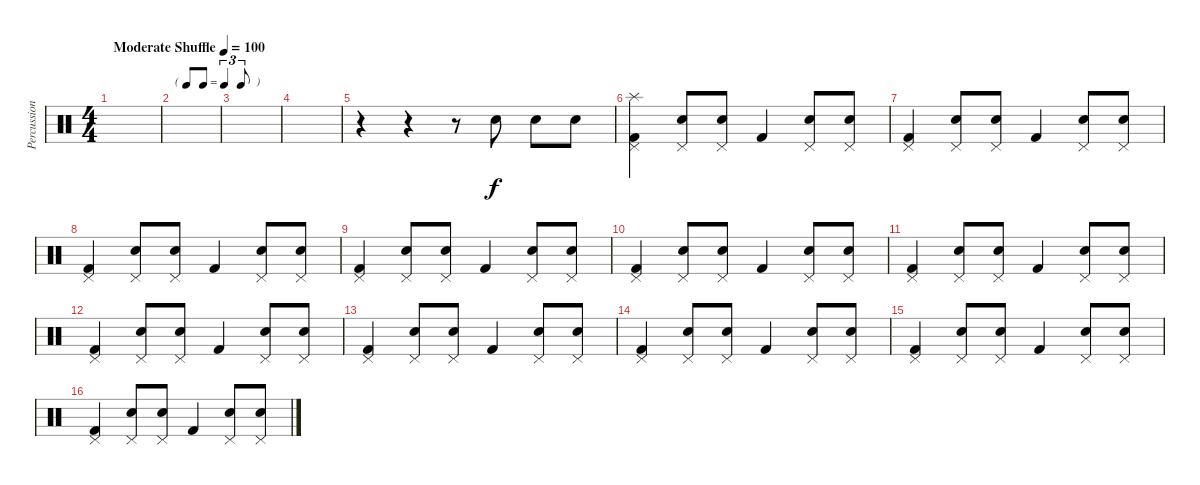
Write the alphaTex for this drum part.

\track ("Percussion" "Percussion") {instrument percussion}
\staff {score}
\articulation defaults
\ts (4 4)
\tempo (100 "Moderate Shuffle")
\clef neutral
\ks c
|
\tf triplet8th
|
|
|
r.4 r.4 r.8 "Snare (hit) 2".8 "Snare (hit) 2".8 "Snare (hit) 2".8 |
("Kick (hit) 2" "Pedal Hi-Hat (hit)" "Splash (hit)").4 ("Snare (hit) 2" "Pedal Hi-Hat (hit)").8 ("Snare (hit) 2" "Pedal Hi-Hat (hit)").8 "Kick (hit) 2".4 ("Snare (hit) 2" "Pedal Hi-Hat (hit)").8 ("Snare (hit) 2" "Pedal Hi-Hat (hit)").8 |
("Kick (hit) 2" "Pedal Hi-Hat (hit)").4 ("Snare (hit) 2" "Pedal Hi-Hat (hit)").8 ("Snare (hit) 2" "Pedal Hi-Hat (hit)").8 "Kick (hit) 2".4 ("Snare (hit) 2" "Pedal Hi-Hat (hit)").8 ("Snare (hit) 2" "Pedal Hi-Hat (hit)").8 |
("Kick (hit) 2" "Pedal Hi-Hat (hit)").4 ("Snare (hit) 2" "Pedal Hi-Hat (hit)").8 ("Snare (hit) 2" "Pedal Hi-Hat (hit)").8 "Kick (hit) 2".4 ("Snare (hit) 2" "Pedal Hi-Hat (hit)").8 ("Snare (hit) 2" "Pedal Hi-Hat (hit)").8 |
("Kick (hit) 2" "Pedal Hi-Hat (hit)").4 ("Snare (hit) 2" "Pedal Hi-Hat (hit)").8 ("Snare (hit) 2" "Pedal Hi-Hat (hit)").8 "Kick (hit) 2".4 ("Snare (hit) 2" "Pedal Hi-Hat (hit)").8 ("Snare (hit) 2" "Pedal Hi-Hat (hit)").8 |
("Kick (hit) 2" "Pedal Hi-Hat (hit)").4 ("Snare (hit) 2" "Pedal Hi-Hat (hit)").8 ("Snare (hit) 2" "Pedal Hi-Hat (hit)").8 "Kick (hit) 2".4 ("Snare (hit) 2" "Pedal Hi-Hat (hit)").8 ("Snare (hit) 2" "Pedal Hi-Hat (hit)").8 |
("Kick (hit) 2" "Pedal Hi-Hat (hit)").4 ("Snare (hit) 2" "Pedal Hi-Hat (hit)").8 ("Snare (hit) 2" "Pedal Hi-Hat (hit)").8 "Kick (hit) 2".4 ("Snare (hit) 2" "Pedal Hi-Hat (hit)").8 ("Snare (hit) 2" "Pedal Hi-Hat (hit)").8 |
("Kick (hit) 2" "Pedal Hi-Hat (hit)").4 ("Snare (hit) 2" "Pedal Hi-Hat (hit)").8 ("Snare (hit) 2" "Pedal Hi-Hat (hit)").8 "Kick (hit) 2".4 ("Snare (hit) 2" "Pedal Hi-Hat (hit)").8 ("Snare (hit) 2" "Pedal Hi-Hat (hit)").8 |
("Kick (hit) 2" "Pedal Hi-Hat (hit)").4 ("Snare (hit) 2" "Pedal Hi-Hat (hit)").8 ("Snare (hit) 2" "Pedal Hi-Hat (hit)").8 "Kick (hit) 2".4 ("Snare (hit) 2" "Pedal Hi-Hat (hit)").8 ("Snare (hit) 2" "Pedal Hi-Hat (hit)").8 |
("Kick (hit) 2" "Pedal Hi-Hat (hit)").4 ("Snare (hit) 2" "Pedal Hi-Hat (hit)").8 ("Snare (hit) 2" "Pedal Hi-Hat (hit)").8 "Kick (hit) 2".4 ("Snare (hit) 2" "Pedal Hi-Hat (hit)").8 ("Snare (hit) 2" "Pedal Hi-Hat (hit)").8 |
("Kick (hit) 2" "Pedal Hi-Hat (hit)").4 ("Snare (hit) 2" "Pedal Hi-Hat (hit)").8 ("Snare (hit) 2" "Pedal Hi-Hat (hit)").8 "Kick (hit) 2".4 ("Snare (hit) 2" "Pedal Hi-Hat (hit)").8 ("Snare (hit) 2" "Pedal Hi-Hat (hit)").8 |
("Kick (hit) 2" "Pedal Hi-Hat (hit)").4 ("Snare (hit) 2" "Pedal Hi-Hat (hit)").8 ("Snare (hit) 2" "Pedal Hi-Hat (hit)").8 "Kick (hit) 2".4 ("Snare (hit) 2" "Pedal Hi-Hat (hit)").8 ("Snare (hit) 2" "Pedal Hi-Hat (hit)").8
